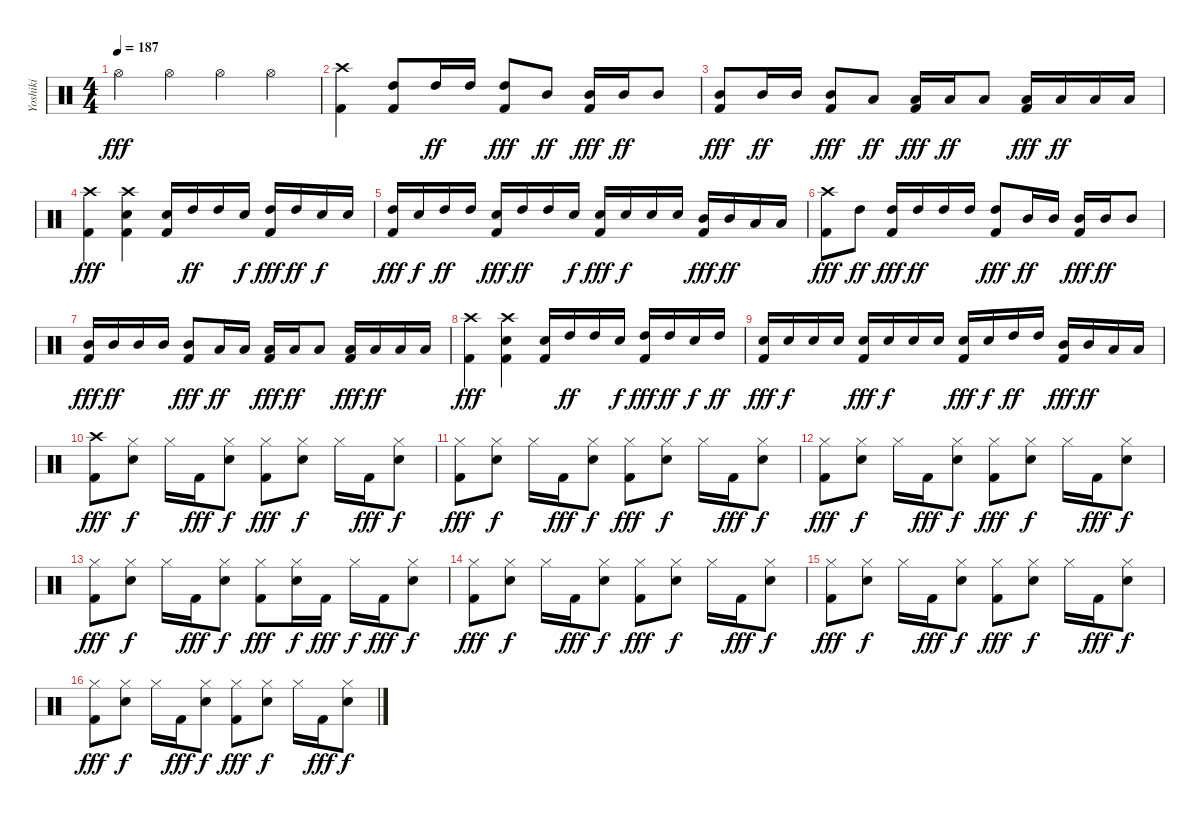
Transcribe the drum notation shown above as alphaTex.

\track ("Yoshiki" "Yoshiki") {instrument percussion}
\staff {score}
\articulation defaults
\ts (4 4)
\tempo 187
\clef neutral
\ks c "Hi-Hat (open)".4{dy fff} "Hi-Hat (open)".4 "Hi-Hat (open)".4 "Hi-Hat (open)".4
|
("Crash high (hit)" "Kick (hit) 2").4 ("High Tom (hit)" "Kick (hit) 2").8 "High Tom (hit)".16{dy ff} "High Tom (hit)".16 ("High Tom (hit)" "Kick (hit) 2").8{dy fff} "Mid Tom (hit)".8{dy ff} ("Mid Tom (hit)" "Kick (hit) 2").16{dy fff} "Mid Tom (hit)".16{dy ff} "Mid Tom (hit)".8 |
("Mid Tom (hit)" "Kick (hit) 2").8{dy fff} "Mid Tom (hit)".16{dy ff} "Mid Tom (hit)".16 ("Mid Tom (hit)" "Kick (hit) 2").8{dy fff} "Low Tom (hit)".8{dy ff} ("Low Tom (hit)" "Kick (hit) 2").16{dy fff} "Low Tom (hit)".16{dy ff} "Low Tom (hit)".8 ("Low Tom (hit)" "Kick (hit) 2").16{dy fff} "Low Tom (hit)".16{dy ff} "Low Tom (hit)".16 "Low Tom (hit)".16 |
("Crash high (hit)" "Kick (hit) 2").4{dy fff} ("Crash high (hit)" "Electric Snare (hit)" "Kick (hit) 2").4 ("Electric Snare (hit)" "Kick (hit) 2").16 "High Tom (hit)".16{dy ff} "High Tom (hit)".16 "Electric Snare (hit)".16{dy f} ("High Tom (hit)" "Kick (hit) 2").16{dy fff} "High Tom (hit)".16{dy ff} "Electric Snare (hit)".16{dy f} "Electric Snare (hit)".16 |
("High Tom (hit)" "Kick (hit) 2").16{dy fff} "Electric Snare (hit)".16{dy f} "High Tom (hit)".16{dy ff} "High Tom (hit)".16 ("Electric Snare (hit)" "Kick (hit) 2").16{dy fff} "High Tom (hit)".16{dy ff} "High Tom (hit)".16 "Electric Snare (hit)".16{dy f} ("Electric Snare (hit)" "Kick (hit) 2").16{dy fff} "Electric Snare (hit)".16{dy f} "Electric Snare (hit)".16 "Electric Snare (hit)".16 ("Mid Tom (hit)" "Kick (hit) 2").16{dy fff} "Mid Tom (hit)".16{dy ff} "Low Floor Tom (hit)".16 "Low Floor Tom (hit)".16 |
("Crash high (hit)" "Kick (hit) 2").8{dy fff} "High Tom (hit)".8{dy ff} ("High Tom (hit)" "Kick (hit) 2").16{dy fff} "High Tom (hit)".16{dy ff} "High Tom (hit)".16 "High Tom (hit)".16 ("High Tom (hit)" "Kick (hit) 2").8{dy fff} "Mid Tom (hit)".16{dy ff} "Mid Tom (hit)".16 ("Mid Tom (hit)" "Kick (hit) 2").16{dy fff} "Mid Tom (hit)".16{dy ff} "Mid Tom (hit)".8 |
("Mid Tom (hit)" "Kick (hit) 2").16{dy fff} "Mid Tom (hit)".16{dy ff} "Mid Tom (hit)".16 "Mid Tom (hit)".16 ("Mid Tom (hit)" "Kick (hit) 2").8{dy fff} "Low Floor Tom (hit)".16{dy ff} "Low Floor Tom (hit)".16 ("Low Floor Tom (hit)" "Kick (hit) 2").16{dy fff} "Low Floor Tom (hit)".16{dy ff} "Low Floor Tom (hit)".8 ("Low Floor Tom (hit)" "Kick (hit) 2").16{dy fff} "Low Floor Tom (hit)".16{dy ff} "Low Floor Tom (hit)".16 "Low Floor Tom (hit)".16 |
("Crash high (hit)" "Kick (hit) 2").4{dy fff} ("Crash high (hit)" "Electric Snare (hit)" "Kick (hit) 2").4 ("Electric Snare (hit)" "Kick (hit) 2").16 "High Tom (hit)".16{dy ff} "High Tom (hit)".16 "Electric Snare (hit)".16{dy f} ("High Tom (hit)" "Kick (hit) 2").16{dy fff} "High Tom (hit)".16{dy ff} "Electric Snare (hit)".16{dy f} "High Tom (hit)".16{dy ff} |
("Electric Snare (hit)" "Kick (hit) 2").16{dy fff} "Electric Snare (hit)".16{dy f} "Electric Snare (hit)".16 "Electric Snare (hit)".16 ("Electric Snare (hit)" "Kick (hit) 2").16{dy fff} "Electric Snare (hit)".16{dy f} "Electric Snare (hit)".16 "Electric Snare (hit)".16 ("Electric Snare (hit)" "Kick (hit) 2").16{dy fff} "Electric Snare (hit)".16{dy f} "High Tom (hit)".16{dy ff} "High Tom (hit)".16 ("Mid Tom (hit)" "Kick (hit) 2").16{dy fff} "Mid Tom (hit)".16{dy ff} "Low Floor Tom (hit)".16 "Low Floor Tom (hit)".16 |
("Crash high (hit)" "Kick (hit) 2").8{dy fff} ("Hi-Hat (closed)" "Electric Snare (hit)").8{dy f} "Hi-Hat (closed)".16 "Kick (hit) 2".16{dy fff} ("Hi-Hat (closed)" "Electric Snare (hit)").8{dy f} ("Hi-Hat (closed)" "Kick (hit) 2").8{dy fff} ("Hi-Hat (closed)" "Electric Snare (hit)").8{dy f} "Hi-Hat (closed)".16 "Kick (hit) 2".16{dy fff} ("Hi-Hat (closed)" "Electric Snare (hit)").8{dy f} |
("Hi-Hat (closed)" "Kick (hit) 2").8{dy fff} ("Hi-Hat (closed)" "Electric Snare (hit)").8{dy f} "Hi-Hat (closed)".16 "Kick (hit) 2".16{dy fff} ("Hi-Hat (closed)" "Electric Snare (hit)").8{dy f} ("Hi-Hat (closed)" "Kick (hit) 2").8{dy fff} ("Hi-Hat (closed)" "Electric Snare (hit)").8{dy f} "Hi-Hat (closed)".16 "Kick (hit) 2".16{dy fff} ("Hi-Hat (closed)" "Electric Snare (hit)").8{dy f} |
("Hi-Hat (closed)" "Kick (hit) 2").8{dy fff} ("Hi-Hat (closed)" "Electric Snare (hit)").8{dy f} "Hi-Hat (closed)".16 "Kick (hit) 2".16{dy fff} ("Hi-Hat (closed)" "Electric Snare (hit)").8{dy f} ("Hi-Hat (closed)" "Kick (hit) 2").8{dy fff} ("Hi-Hat (closed)" "Electric Snare (hit)").8{dy f} "Hi-Hat (closed)".16 "Kick (hit) 2".16{dy fff} ("Hi-Hat (closed)" "Electric Snare (hit)").8{dy f} |
("Hi-Hat (closed)" "Kick (hit) 2").8{dy fff} ("Hi-Hat (closed)" "Electric Snare (hit)").8{dy f} "Hi-Hat (closed)".16 "Kick (hit) 2".16{dy fff} ("Hi-Hat (closed)" "Electric Snare (hit)").8{dy f} ("Hi-Hat (closed)" "Kick (hit) 2").8{dy fff} ("Hi-Hat (closed)" "Electric Snare (hit)").16{dy f} "Kick (hit) 2".16{dy fff} "Hi-Hat (closed)".16{dy f} "Kick (hit) 2".16{dy fff} ("Hi-Hat (closed)" "Electric Snare (hit)").8{dy f} |
("Hi-Hat (closed)" "Kick (hit) 2").8{dy fff} ("Hi-Hat (closed)" "Electric Snare (hit)").8{dy f} "Hi-Hat (closed)".16 "Kick (hit) 2".16{dy fff} ("Hi-Hat (closed)" "Electric Snare (hit)").8{dy f} ("Hi-Hat (closed)" "Kick (hit) 2").8{dy fff} ("Hi-Hat (closed)" "Electric Snare (hit)").8{dy f} "Hi-Hat (closed)".16 "Kick (hit) 2".16{dy fff} ("Hi-Hat (closed)" "Electric Snare (hit)").8{dy f} |
("Hi-Hat (closed)" "Kick (hit) 2").8{dy fff} ("Hi-Hat (closed)" "Electric Snare (hit)").8{dy f} "Hi-Hat (closed)".16 "Kick (hit) 2".16{dy fff} ("Hi-Hat (closed)" "Electric Snare (hit)").8{dy f} ("Hi-Hat (closed)" "Kick (hit) 2").8{dy fff} ("Hi-Hat (closed)" "Electric Snare (hit)").8{dy f} "Hi-Hat (closed)".16 "Kick (hit) 2".16{dy fff} ("Hi-Hat (closed)" "Electric Snare (hit)").8{dy f} |
("Hi-Hat (closed)" "Kick (hit) 2").8{dy fff} ("Hi-Hat (closed)" "Electric Snare (hit)").8{dy f} "Hi-Hat (closed)".16 "Kick (hit) 2".16{dy fff} ("Hi-Hat (closed)" "Electric Snare (hit)").8{dy f} ("Hi-Hat (closed)" "Kick (hit) 2").8{dy fff} ("Hi-Hat (closed)" "Electric Snare (hit)").8{dy f} "Hi-Hat (closed)".16 "Kick (hit) 2".16{dy fff} ("Hi-Hat (closed)" "Electric Snare (hit)").8{dy f}
